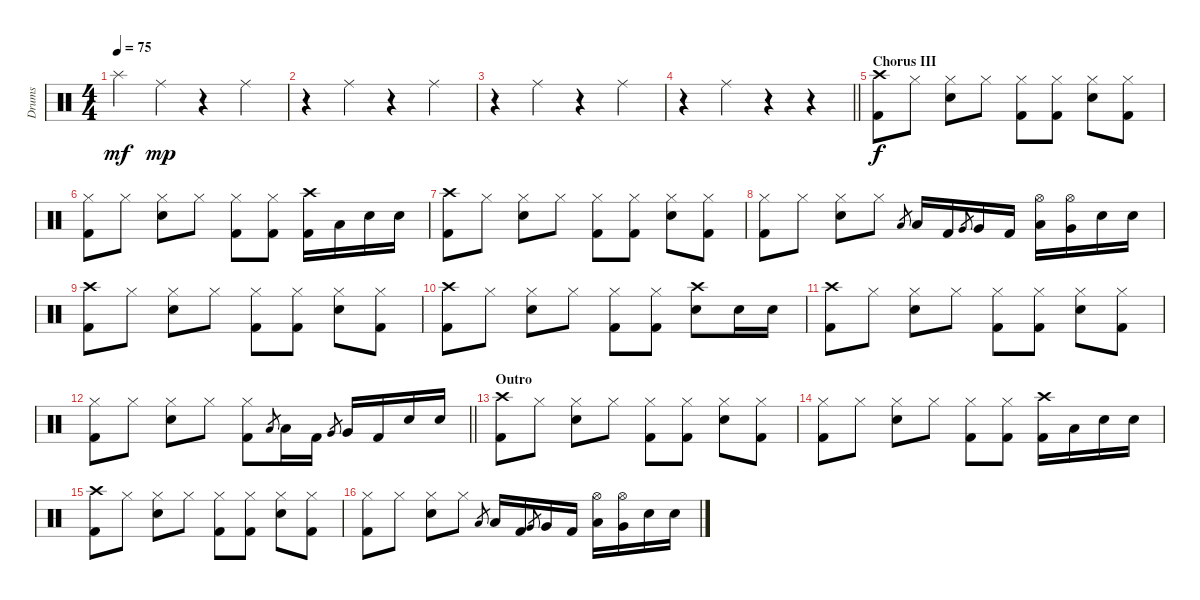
\track ("Drums" "Drums") {instrument percussion}
\staff {score}
\articulation defaults
\ts (4 4)
\tempo 75
\clef neutral
\ks c "Splash (hit)".4{dy mf} "Ride (middle)".4{dy mp}
r.4 "Ride (middle)".4 |
r.4 "Ride (middle)".4 r.4 "Ride (middle)".4 |
r.4 "Ride (middle)".4 r.4 "Ride (middle)".4 |
\barLineRight lightlight
r.4 "Ride (middle)".4 r.4 r.4 |
\section ("" "Chorus III")
("Crash high (hit)" "Kick (hit) 2").8{dy f} "Hi-Hat (closed)".8 ("Hi-Hat (closed)" "Snare (hit) 2").8 "Hi-Hat (closed)".8 ("Hi-Hat (closed)" "Kick (hit) 2").8 ("Hi-Hat (closed)" "Kick (hit) 2").8 ("Hi-Hat (closed)" "Snare (hit) 2").8 ("Hi-Hat (closed)" "Kick (hit) 2").8 |
("Hi-Hat (closed)" "Kick (hit) 2").8 "Hi-Hat (closed)".8 ("Hi-Hat (closed)" "Snare (hit) 2").8 "Hi-Hat (closed)".8 ("Hi-Hat (closed)" "Kick (hit) 2").8 ("Hi-Hat (closed)" "Kick (hit) 2").8 ("Crash high (hit)" "Kick (hit) 2").16 "Low Floor Tom (hit)".16 "Snare (hit) 2".16 "Snare (hit) 2".16 |
("Crash high (hit)" "Kick (hit) 2").8 "Hi-Hat (closed)".8 ("Hi-Hat (closed)" "Snare (hit) 2").8 "Hi-Hat (closed)".8 ("Hi-Hat (closed)" "Kick (hit) 2").8 ("Hi-Hat (closed)" "Kick (hit) 2").8 ("Hi-Hat (closed)" "Snare (hit) 2").8 ("Hi-Hat (closed)" "Kick (hit) 2").8 |
("Hi-Hat (closed)" "Kick (hit) 2").8 "Hi-Hat (closed)".8 ("Hi-Hat (closed)" "Snare (hit) 2").8 "Hi-Hat (closed)".8 "Low Tom (hit)".8{gr} "Low Tom (hit)".16 "Kick (hit) 2".16 "Very Low Tom (hit)".8{gr} "Very Low Tom (hit)".16 "Kick (hit) 2".16 ("Hi-Hat (open)" "Low Tom (hit)").16 ("Hi-Hat (open)" "Very Low Tom (hit)").16 "Snare (hit) 2".16 "Snare (hit) 2".16 |
("Crash high (hit)" "Kick (hit) 2").8 "Hi-Hat (closed)".8 ("Hi-Hat (closed)" "Snare (hit) 2").8 "Hi-Hat (closed)".8 ("Hi-Hat (closed)" "Kick (hit) 2").8 ("Hi-Hat (closed)" "Kick (hit) 2").8 ("Hi-Hat (closed)" "Snare (hit) 2").8 ("Hi-Hat (closed)" "Kick (hit) 2").8 |
("Crash high (hit)" "Kick (hit) 2").8 "Hi-Hat (closed)".8 ("Hi-Hat (closed)" "Snare (hit) 2").8 "Hi-Hat (closed)".8 ("Hi-Hat (closed)" "Kick (hit) 2").8 ("Hi-Hat (closed)" "Kick (hit) 2").8 ("Crash high (hit)" "Snare (hit) 2").8 "Snare (hit) 2".16 "Snare (hit) 2".16 |
("Crash high (hit)" "Kick (hit) 2").8 "Hi-Hat (closed)".8 ("Hi-Hat (closed)" "Snare (hit) 2").8 "Hi-Hat (closed)".8 ("Hi-Hat (closed)" "Kick (hit) 2").8 ("Hi-Hat (closed)" "Kick (hit) 2").8 ("Hi-Hat (closed)" "Snare (hit) 2").8 ("Hi-Hat (closed)" "Kick (hit) 2").8 |
\barLineRight lightlight
("Hi-Hat (closed)" "Kick (hit) 2").8 "Hi-Hat (closed)".8 ("Hi-Hat (closed)" "Snare (hit) 2").8 "Hi-Hat (closed)".8 ("Hi-Hat (closed)" "Kick (hit) 2").8 "Low Tom (hit)".8{gr} "Low Tom (hit)".16 "Kick (hit) 2".16 "Very Low Tom (hit)".8{gr} "Very Low Tom (hit)".16 "Kick (hit) 2".16 "Snare (hit) 2".16 "Snare (hit) 2".16 |
\section ("" "Outro")
("Crash high (hit)" "Kick (hit) 2").8 "Hi-Hat (closed)".8 ("Hi-Hat (closed)" "Snare (hit) 2").8 "Hi-Hat (closed)".8 ("Hi-Hat (closed)" "Kick (hit) 2").8 ("Hi-Hat (closed)" "Kick (hit) 2").8 ("Hi-Hat (closed)" "Snare (hit) 2").8 ("Hi-Hat (closed)" "Kick (hit) 2").8 |
("Hi-Hat (closed)" "Kick (hit) 2").8 "Hi-Hat (closed)".8 ("Hi-Hat (closed)" "Snare (hit) 2").8 "Hi-Hat (closed)".8 ("Hi-Hat (closed)" "Kick (hit) 2").8 ("Hi-Hat (closed)" "Kick (hit) 2").8 ("Crash high (hit)" "Kick (hit) 2").16 "Low Floor Tom (hit)".16 "Snare (hit) 2".16 "Snare (hit) 2".16 |
("Crash high (hit)" "Kick (hit) 2").8 "Hi-Hat (closed)".8 ("Hi-Hat (closed)" "Snare (hit) 2").8 "Hi-Hat (closed)".8 ("Hi-Hat (closed)" "Kick (hit) 2").8 ("Hi-Hat (closed)" "Kick (hit) 2").8 ("Hi-Hat (closed)" "Snare (hit) 2").8 ("Hi-Hat (closed)" "Kick (hit) 2").8 |
("Hi-Hat (closed)" "Kick (hit) 2").8 "Hi-Hat (closed)".8 ("Hi-Hat (closed)" "Snare (hit) 2").8 "Hi-Hat (closed)".8 "Low Tom (hit)".8{gr} "Low Tom (hit)".16 "Kick (hit) 2".16 "Very Low Tom (hit)".8{gr} "Very Low Tom (hit)".16 "Kick (hit) 2".16 ("Hi-Hat (open)" "Low Tom (hit)").16 ("Hi-Hat (open)" "Very Low Tom (hit)").16 "Snare (hit) 2".16 "Snare (hit) 2".16
